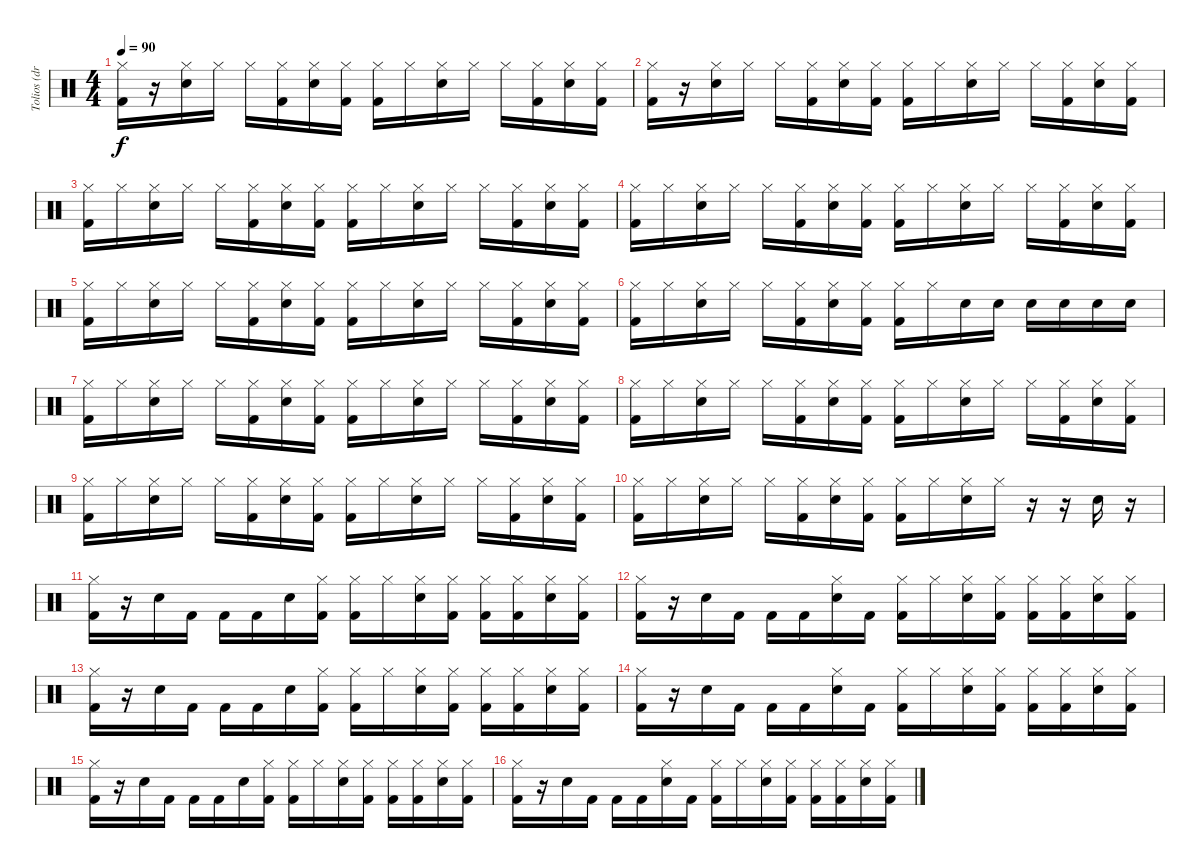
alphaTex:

\track ("Tolios (drums)" "Tolios (dr") {instrument percussion}
\staff {score}
\articulation defaults
\ts (4 4)
\tempo 90
\clef neutral
\ks c
("Hi-Hat (closed)" "Kick (hit) 2").16{dy f} r.16 ("Hi-Hat (closed)" "Snare (hit) 2").16 "Hi-Hat (closed)".16 "Hi-Hat (closed)".16 ("Hi-Hat (closed)" "Kick (hit) 2").16 ("Hi-Hat (closed)" "Snare (hit) 2").16 ("Hi-Hat (closed)" "Kick (hit) 2").16 ("Hi-Hat (closed)" "Kick (hit) 2").16 "Hi-Hat (closed)".16 ("Hi-Hat (closed)" "Snare (hit) 2").16 "Hi-Hat (closed)".16 "Hi-Hat (closed)".16 ("Hi-Hat (closed)" "Kick (hit) 2").16 ("Hi-Hat (closed)" "Snare (hit) 2").16 ("Hi-Hat (closed)" "Kick (hit) 2").16 |
("Hi-Hat (closed)" "Kick (hit) 2").16 r.16 ("Hi-Hat (closed)" "Snare (hit) 2").16 "Hi-Hat (closed)".16 "Hi-Hat (closed)".16 ("Hi-Hat (closed)" "Kick (hit) 2").16 ("Hi-Hat (closed)" "Snare (hit) 2").16 ("Hi-Hat (closed)" "Kick (hit) 2").16 ("Hi-Hat (closed)" "Kick (hit) 2").16 "Hi-Hat (closed)".16 ("Hi-Hat (closed)" "Snare (hit) 2").16 "Hi-Hat (closed)".16 "Hi-Hat (closed)".16 ("Hi-Hat (closed)" "Kick (hit) 2").16 ("Hi-Hat (closed)" "Snare (hit) 2").16 ("Hi-Hat (closed)" "Kick (hit) 2").16 |
("Hi-Hat (closed)" "Kick (hit) 2").16 "Hi-Hat (closed)".16 ("Hi-Hat (closed)" "Snare (hit) 2").16 "Hi-Hat (closed)".16 "Hi-Hat (closed)".16 ("Hi-Hat (closed)" "Kick (hit) 2").16 ("Hi-Hat (closed)" "Snare (hit) 2").16 ("Hi-Hat (closed)" "Kick (hit) 2").16 ("Hi-Hat (closed)" "Kick (hit) 2").16 "Hi-Hat (closed)".16 ("Hi-Hat (closed)" "Snare (hit) 2").16 "Hi-Hat (closed)".16 "Hi-Hat (closed)".16 ("Hi-Hat (closed)" "Kick (hit) 2").16 ("Hi-Hat (closed)" "Snare (hit) 2").16 ("Hi-Hat (closed)" "Kick (hit) 2").16 |
("Hi-Hat (closed)" "Kick (hit) 2").16 "Hi-Hat (closed)".16 ("Hi-Hat (closed)" "Snare (hit) 2").16 "Hi-Hat (closed)".16 "Hi-Hat (closed)".16 ("Hi-Hat (closed)" "Kick (hit) 2").16 ("Hi-Hat (closed)" "Snare (hit) 2").16 ("Hi-Hat (closed)" "Kick (hit) 2").16 ("Hi-Hat (closed)" "Kick (hit) 2").16 "Hi-Hat (closed)".16 ("Hi-Hat (closed)" "Snare (hit) 2").16 "Hi-Hat (closed)".16 "Hi-Hat (closed)".16 ("Hi-Hat (closed)" "Kick (hit) 2").16 ("Hi-Hat (closed)" "Snare (hit) 2").16 ("Hi-Hat (closed)" "Kick (hit) 2").16 |
("Hi-Hat (closed)" "Kick (hit) 2").16 "Hi-Hat (closed)".16 ("Hi-Hat (closed)" "Snare (hit) 2").16 "Hi-Hat (closed)".16 "Hi-Hat (closed)".16 ("Hi-Hat (closed)" "Kick (hit) 2").16 ("Hi-Hat (closed)" "Snare (hit) 2").16 ("Hi-Hat (closed)" "Kick (hit) 2").16 ("Hi-Hat (closed)" "Kick (hit) 2").16 "Hi-Hat (closed)".16 ("Hi-Hat (closed)" "Snare (hit) 2").16 "Hi-Hat (closed)".16 "Hi-Hat (closed)".16 ("Hi-Hat (closed)" "Kick (hit) 2").16 ("Hi-Hat (closed)" "Snare (hit) 2").16 ("Hi-Hat (closed)" "Kick (hit) 2").16 |
("Hi-Hat (closed)" "Kick (hit) 2").16 "Hi-Hat (closed)".16 ("Hi-Hat (closed)" "Snare (hit) 2").16 "Hi-Hat (closed)".16 "Hi-Hat (closed)".16 ("Hi-Hat (closed)" "Kick (hit) 2").16 ("Hi-Hat (closed)" "Snare (hit) 2").16 ("Hi-Hat (closed)" "Kick (hit) 2").16 ("Hi-Hat (closed)" "Kick (hit) 2").16 "Hi-Hat (closed)".16 "Snare (hit) 2".16 "Snare (hit) 2".16 "Snare (hit) 2".16 "Snare (hit) 2".16 "Snare (hit) 2".16 "Snare (hit) 2".16 |
("Hi-Hat (closed)" "Kick (hit) 2").16 "Hi-Hat (closed)".16 ("Hi-Hat (closed)" "Snare (hit) 2").16 "Hi-Hat (closed)".16 "Hi-Hat (closed)".16 ("Hi-Hat (closed)" "Kick (hit) 2").16 ("Hi-Hat (closed)" "Snare (hit) 2").16 ("Hi-Hat (closed)" "Kick (hit) 2").16 ("Hi-Hat (closed)" "Kick (hit) 2").16 "Hi-Hat (closed)".16 ("Hi-Hat (closed)" "Snare (hit) 2").16 "Hi-Hat (closed)".16 "Hi-Hat (closed)".16 ("Hi-Hat (closed)" "Kick (hit) 2").16 ("Hi-Hat (closed)" "Snare (hit) 2").16 ("Hi-Hat (closed)" "Kick (hit) 2").16 |
("Hi-Hat (closed)" "Kick (hit) 2").16 "Hi-Hat (closed)".16 ("Hi-Hat (closed)" "Snare (hit) 2").16 "Hi-Hat (closed)".16 "Hi-Hat (closed)".16 ("Hi-Hat (closed)" "Kick (hit) 2").16 ("Hi-Hat (closed)" "Snare (hit) 2").16 ("Hi-Hat (closed)" "Kick (hit) 2").16 ("Hi-Hat (closed)" "Kick (hit) 2").16 "Hi-Hat (closed)".16 ("Hi-Hat (closed)" "Snare (hit) 2").16 "Hi-Hat (closed)".16 "Hi-Hat (closed)".16 ("Hi-Hat (closed)" "Kick (hit) 2").16 ("Hi-Hat (closed)" "Snare (hit) 2").16 ("Hi-Hat (closed)" "Kick (hit) 2").16 |
("Hi-Hat (closed)" "Kick (hit) 2").16 "Hi-Hat (closed)".16 ("Hi-Hat (closed)" "Snare (hit) 2").16 "Hi-Hat (closed)".16 "Hi-Hat (closed)".16 ("Hi-Hat (closed)" "Kick (hit) 2").16 ("Hi-Hat (closed)" "Snare (hit) 2").16 ("Hi-Hat (closed)" "Kick (hit) 2").16 ("Hi-Hat (closed)" "Kick (hit) 2").16 "Hi-Hat (closed)".16 ("Hi-Hat (closed)" "Snare (hit) 2").16 "Hi-Hat (closed)".16 "Hi-Hat (closed)".16 ("Hi-Hat (closed)" "Kick (hit) 2").16 ("Hi-Hat (closed)" "Snare (hit) 2").16 ("Hi-Hat (closed)" "Kick (hit) 2").16 |
("Hi-Hat (closed)" "Kick (hit) 2").16 "Hi-Hat (closed)".16 ("Hi-Hat (closed)" "Snare (hit) 2").16 "Hi-Hat (closed)".16 "Hi-Hat (closed)".16 ("Hi-Hat (closed)" "Kick (hit) 2").16 ("Hi-Hat (closed)" "Snare (hit) 2").16 ("Hi-Hat (closed)" "Kick (hit) 2").16 ("Hi-Hat (closed)" "Kick (hit) 2").16 "Hi-Hat (closed)".16 ("Hi-Hat (closed)" "Snare (hit) 2").16 "Hi-Hat (closed)".16 r.16 r.16 "Snare (hit) 2".16 r.16 |
("Hi-Hat (closed)" "Kick (hit) 2").16 r.16 "Snare (hit) 2".16 "Kick (hit) 2".16 "Kick (hit) 2".16 "Kick (hit) 2".16 "Snare (hit) 2".16 ("Hi-Hat (closed)" "Kick (hit) 2").16 ("Hi-Hat (closed)" "Kick (hit) 2").16 "Hi-Hat (closed)".16 ("Hi-Hat (closed)" "Snare (hit) 2").16 ("Hi-Hat (closed)" "Kick (hit) 2").16 ("Hi-Hat (closed)" "Kick (hit) 2").16 ("Kick (hit) 2" "Hi-Hat (closed)").16 ("Hi-Hat (closed)" "Snare (hit) 2").16 ("Kick (hit) 2" "Hi-Hat (closed)").16 |
("Hi-Hat (closed)" "Kick (hit) 2").16 r.16 "Snare (hit) 2".16 "Kick (hit) 2".16 "Kick (hit) 2".16 "Kick (hit) 2".16 ("Hi-Hat (closed)" "Snare (hit) 2").16 "Kick (hit) 2".16 ("Hi-Hat (closed)" "Kick (hit) 2").16 "Hi-Hat (closed)".16 ("Hi-Hat (closed)" "Snare (hit) 2").16 ("Hi-Hat (closed)" "Kick (hit) 2").16 ("Hi-Hat (closed)" "Kick (hit) 2").16 ("Kick (hit) 2" "Hi-Hat (closed)").16 ("Hi-Hat (closed)" "Snare (hit) 2").16 ("Kick (hit) 2" "Hi-Hat (closed)").16 |
("Hi-Hat (closed)" "Kick (hit) 2").16 r.16 "Snare (hit) 2".16 "Kick (hit) 2".16 "Kick (hit) 2".16 "Kick (hit) 2".16 "Snare (hit) 2".16 ("Hi-Hat (closed)" "Kick (hit) 2").16 ("Hi-Hat (closed)" "Kick (hit) 2").16 "Hi-Hat (closed)".16 ("Hi-Hat (closed)" "Snare (hit) 2").16 ("Hi-Hat (closed)" "Kick (hit) 2").16 ("Hi-Hat (closed)" "Kick (hit) 2").16 ("Kick (hit) 2" "Hi-Hat (closed)").16 ("Hi-Hat (closed)" "Snare (hit) 2").16 ("Kick (hit) 2" "Hi-Hat (closed)").16 |
("Hi-Hat (closed)" "Kick (hit) 2").16 r.16 "Snare (hit) 2".16 "Kick (hit) 2".16 "Kick (hit) 2".16 "Kick (hit) 2".16 ("Hi-Hat (closed)" "Snare (hit) 2").16 "Kick (hit) 2".16 ("Hi-Hat (closed)" "Kick (hit) 2").16 "Hi-Hat (closed)".16 ("Hi-Hat (closed)" "Snare (hit) 2").16 ("Hi-Hat (closed)" "Kick (hit) 2").16 ("Hi-Hat (closed)" "Kick (hit) 2").16 ("Kick (hit) 2" "Hi-Hat (closed)").16 ("Hi-Hat (closed)" "Snare (hit) 2").16 ("Kick (hit) 2" "Hi-Hat (closed)").16 |
("Hi-Hat (closed)" "Kick (hit) 2").16 r.16 "Snare (hit) 2".16 "Kick (hit) 2".16 "Kick (hit) 2".16 "Kick (hit) 2".16 "Snare (hit) 2".16 ("Hi-Hat (closed)" "Kick (hit) 2").16 ("Hi-Hat (closed)" "Kick (hit) 2").16 "Hi-Hat (closed)".16 ("Hi-Hat (closed)" "Snare (hit) 2").16 ("Hi-Hat (closed)" "Kick (hit) 2").16 ("Hi-Hat (closed)" "Kick (hit) 2").16 ("Kick (hit) 2" "Hi-Hat (closed)").16 ("Hi-Hat (closed)" "Snare (hit) 2").16 ("Kick (hit) 2" "Hi-Hat (closed)").16 |
("Hi-Hat (closed)" "Kick (hit) 2").16 r.16 "Snare (hit) 2".16 "Kick (hit) 2".16 "Kick (hit) 2".16 "Kick (hit) 2".16 ("Hi-Hat (closed)" "Snare (hit) 2").16 "Kick (hit) 2".16 ("Hi-Hat (closed)" "Kick (hit) 2").16 "Hi-Hat (closed)".16 ("Hi-Hat (closed)" "Snare (hit) 2").16 ("Hi-Hat (closed)" "Kick (hit) 2").16 ("Hi-Hat (closed)" "Kick (hit) 2").16 ("Kick (hit) 2" "Hi-Hat (closed)").16 ("Hi-Hat (closed)" "Snare (hit) 2").16 ("Kick (hit) 2" "Hi-Hat (closed)").16
